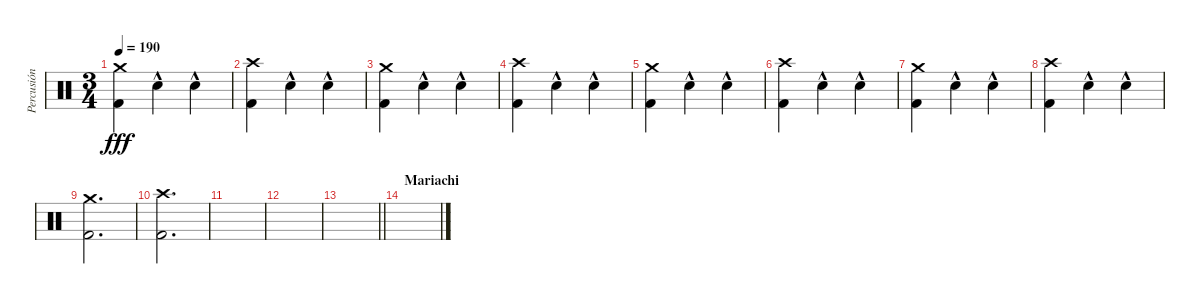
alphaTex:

\track ("Percusión" "Percusión") {instrument percussion}
\staff {score}
\articulation defaults
\ts (3 4)
\tempo 190
\clef neutral
\ks c
("Crash medium (hit)" "Kick (hit) 2").4{dy fff} "Electric Snare (hit)"{hac}.4 "Electric Snare (hit)"{hac}.4 |
("Crash high (hit)" "Kick (hit) 2").4 "Electric Snare (hit)"{hac}.4 "Electric Snare (hit)"{hac}.4 |
("Crash medium (hit)" "Kick (hit) 2").4 "Electric Snare (hit)"{hac}.4 "Electric Snare (hit)"{hac}.4 |
("Crash high (hit)" "Kick (hit) 2").4 "Electric Snare (hit)"{hac}.4 "Electric Snare (hit)"{hac}.4 |
("Crash medium (hit)" "Kick (hit) 2").4 "Electric Snare (hit)"{hac}.4 "Electric Snare (hit)"{hac}.4 |
("Crash high (hit)" "Kick (hit) 2").4 "Electric Snare (hit)"{hac}.4 "Electric Snare (hit)"{hac}.4 |
("Crash medium (hit)" "Kick (hit) 2").4 "Electric Snare (hit)"{hac}.4 "Electric Snare (hit)"{hac}.4 |
("Crash high (hit)" "Kick (hit) 2").4 "Electric Snare (hit)"{hac}.4 "Electric Snare (hit)"{hac}.4 |
("Crash medium (hit)" "Kick (hit) 2").2{d} |
("Crash high (hit)" "Kick (hit) 2").2{d} |
|
|
\barLineRight lightlight
|
\section ("" "Mariachi")
